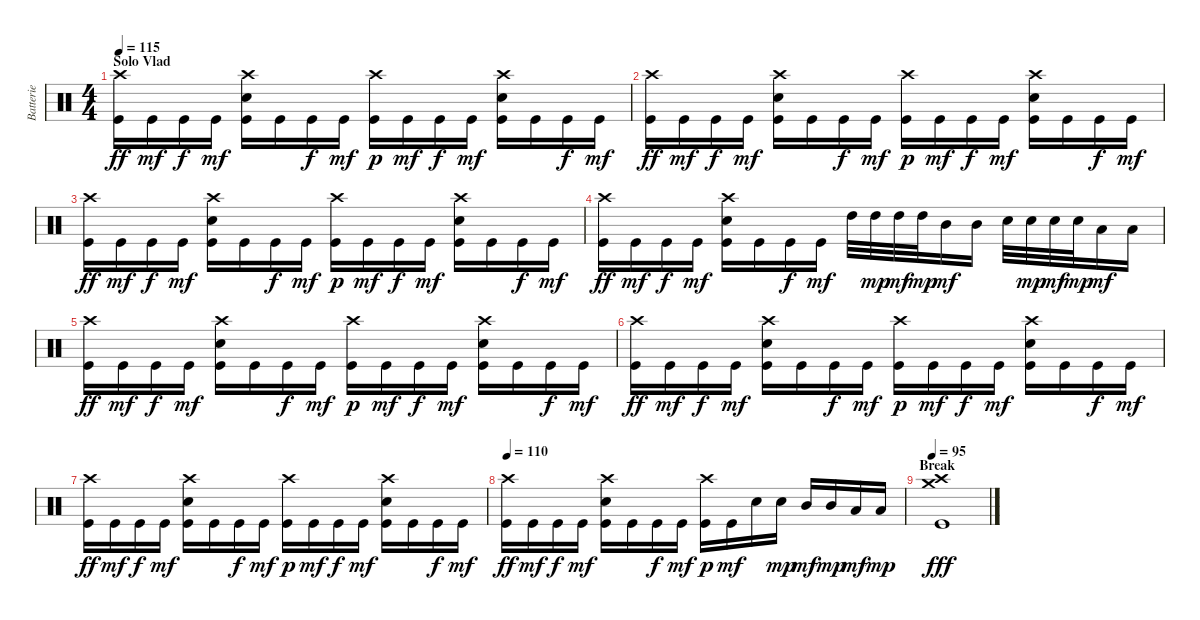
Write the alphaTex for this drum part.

\track ("Batterie" "Batterie") {instrument percussion}
\staff {score}
\articulation defaults
\ts (4 4)
\section ("" "Solo Vlad")
\tempo 115
\clef neutral
\ks c
("Crash high (hit)" "Kick (hit)").16{dy ff} "Kick (hit)".16{dy mf} "Kick (hit)".16{dy f} "Kick (hit)".16{dy mf} ("Crash high (hit)" "Electric Snare (hit)" "Kick (hit)").16 "Kick (hit)".16 "Kick (hit)".16{dy f} "Kick (hit)".16{dy mf} ("Crash high (hit)" "Kick (hit)").16{dy p} "Kick (hit)".16{dy mf} "Kick (hit)".16{dy f} "Kick (hit)".16{dy mf} ("Crash high (hit)" "Electric Snare (hit)" "Kick (hit)").16 "Kick (hit)".16 "Kick (hit)".16{dy f} "Kick (hit)".16{dy mf} |
("Crash high (hit)" "Kick (hit)").16{dy ff} "Kick (hit)".16{dy mf} "Kick (hit)".16{dy f} "Kick (hit)".16{dy mf} ("Crash high (hit)" "Electric Snare (hit)" "Kick (hit)").16 "Kick (hit)".16 "Kick (hit)".16{dy f} "Kick (hit)".16{dy mf} ("Crash high (hit)" "Kick (hit)").16{dy p} "Kick (hit)".16{dy mf} "Kick (hit)".16{dy f} "Kick (hit)".16{dy mf} ("Crash high (hit)" "Electric Snare (hit)" "Kick (hit)").16 "Kick (hit)".16 "Kick (hit)".16{dy f} "Kick (hit)".16{dy mf} |
("Crash high (hit)" "Kick (hit)").16{dy ff} "Kick (hit)".16{dy mf} "Kick (hit)".16{dy f} "Kick (hit)".16{dy mf} ("Crash high (hit)" "Electric Snare (hit)" "Kick (hit)").16 "Kick (hit)".16 "Kick (hit)".16{dy f} "Kick (hit)".16{dy mf} ("Crash high (hit)" "Kick (hit)").16{dy p} "Kick (hit)".16{dy mf} "Kick (hit)".16{dy f} "Kick (hit)".16{dy mf} ("Crash high (hit)" "Electric Snare (hit)" "Kick (hit)").16 "Kick (hit)".16 "Kick (hit)".16{dy f} "Kick (hit)".16{dy mf} |
("Crash high (hit)" "Kick (hit)").16{dy ff} "Kick (hit)".16{dy mf} "Kick (hit)".16{dy f} "Kick (hit)".16{dy mf} ("Crash high (hit)" "Electric Snare (hit)" "Kick (hit)").16 "Kick (hit)".16 "Kick (hit)".16{dy f} "Kick (hit)".16{dy mf} "High Tom (hit)".32 "High Tom (hit)".32{dy mp} "High Tom (hit)".32{dy mf} "High Tom (hit)".32{dy mp} "Mid Tom (hit)".16{dy mf} "Mid Tom (hit)".16 "Electric Snare (hit)".32 "Electric Snare (hit)".32{dy mp} "Electric Snare (hit)".32{dy mf} "Electric Snare (hit)".32{dy mp} "Low Tom (hit)".16{dy mf} "Low Tom (hit)".16 |
("Crash high (hit)" "Kick (hit)").16{dy ff} "Kick (hit)".16{dy mf} "Kick (hit)".16{dy f} "Kick (hit)".16{dy mf} ("Crash high (hit)" "Electric Snare (hit)" "Kick (hit)").16 "Kick (hit)".16 "Kick (hit)".16{dy f} "Kick (hit)".16{dy mf} ("Crash high (hit)" "Kick (hit)").16{dy p} "Kick (hit)".16{dy mf} "Kick (hit)".16{dy f} "Kick (hit)".16{dy mf} ("Crash high (hit)" "Electric Snare (hit)" "Kick (hit)").16 "Kick (hit)".16 "Kick (hit)".16{dy f} "Kick (hit)".16{dy mf} |
("Crash high (hit)" "Kick (hit)").16{dy ff} "Kick (hit)".16{dy mf} "Kick (hit)".16{dy f} "Kick (hit)".16{dy mf} ("Crash high (hit)" "Electric Snare (hit)" "Kick (hit)").16 "Kick (hit)".16 "Kick (hit)".16{dy f} "Kick (hit)".16{dy mf} ("Crash high (hit)" "Kick (hit)").16{dy p} "Kick (hit)".16{dy mf} "Kick (hit)".16{dy f} "Kick (hit)".16{dy mf} ("Crash high (hit)" "Electric Snare (hit)" "Kick (hit)").16 "Kick (hit)".16 "Kick (hit)".16{dy f} "Kick (hit)".16{dy mf} |
("Crash high (hit)" "Kick (hit)").16{dy ff} "Kick (hit)".16{dy mf} "Kick (hit)".16{dy f} "Kick (hit)".16{dy mf} ("Crash high (hit)" "Electric Snare (hit)" "Kick (hit)").16 "Kick (hit)".16 "Kick (hit)".16{dy f} "Kick (hit)".16{dy mf} ("Crash high (hit)" "Kick (hit)").16{dy p} "Kick (hit)".16{dy mf} "Kick (hit)".16{dy f} "Kick (hit)".16{dy mf} ("Crash high (hit)" "Electric Snare (hit)" "Kick (hit)").16 "Kick (hit)".16 "Kick (hit)".16{dy f} "Kick (hit)".16{dy mf} |
\tempo 110
("Crash high (hit)" "Kick (hit)").16{dy ff} "Kick (hit)".16{dy mf} "Kick (hit)".16{dy f} "Kick (hit)".16{dy mf} ("Crash high (hit)" "Electric Snare (hit)" "Kick (hit)").16 "Kick (hit)".16 "Kick (hit)".16{dy f} "Kick (hit)".16{dy mf} ("Crash high (hit)" "Kick (hit)").16{dy p} "Kick (hit)".16{dy mf} "Electric Snare (hit)".16 "Electric Snare (hit)".16{dy mp} "Mid Tom (hit)".16{dy mf} "Mid Tom (hit)".16{dy mp} "Low Tom (hit)".16{dy mf} "Low Tom (hit)".16{dy mp} |
\section ("" "Break")
\tempo 95
("Crash high (hit)" "Crash medium (hit)" "Kick (hit)").1{dy fff}
